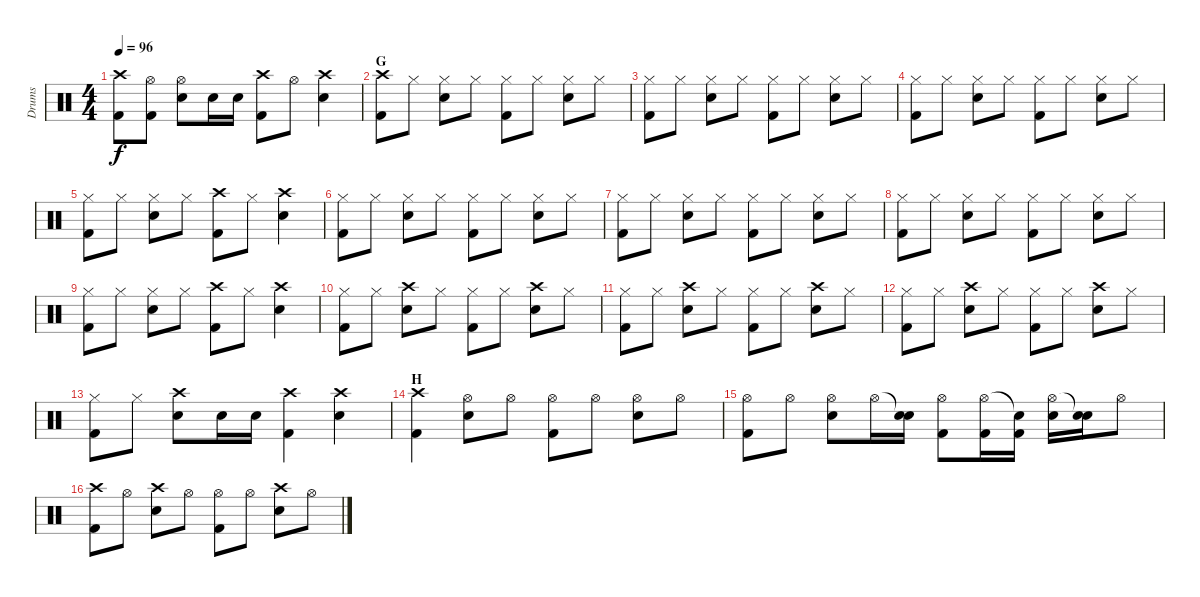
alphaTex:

\track ("Drums" "Drums") {instrument percussion}
\staff {score}
\articulation defaults
\ts (4 4)
\tempo 96
\clef neutral
\ks c
("Crash high (hit)" "Kick (hit) 2").8{dy f} ("Hi-Hat (open)" "Kick (hit) 2").8 ("Hi-Hat (open)" "Snare (hit) 2").8 "Snare (hit) 2".16 "Snare (hit) 2".16 ("Crash high (hit)" "Kick (hit) 2").8 "Hi-Hat (open)".8 ("Crash high (hit)" "Snare (hit) 2").4 |
\section ("" "G")
("Crash high (hit)" "Kick (hit) 2").8 "Hi-Hat (closed)".8 ("Hi-Hat (closed)" "Snare (hit) 2").8 "Hi-Hat (closed)".8 ("Hi-Hat (closed)" "Kick (hit) 2").8 "Hi-Hat (closed)".8 ("Hi-Hat (closed)" "Snare (hit) 2").8 "Hi-Hat (closed)".8 |
("Hi-Hat (closed)" "Kick (hit) 2").8 "Hi-Hat (closed)".8 ("Hi-Hat (closed)" "Snare (hit) 2").8 "Hi-Hat (closed)".8 ("Hi-Hat (closed)" "Kick (hit) 2").8 "Hi-Hat (closed)".8 ("Hi-Hat (closed)" "Snare (hit) 2").8 "Hi-Hat (closed)".8 |
("Hi-Hat (closed)" "Kick (hit) 2").8 "Hi-Hat (closed)".8 ("Hi-Hat (closed)" "Snare (hit) 2").8 "Hi-Hat (closed)".8 ("Hi-Hat (closed)" "Kick (hit) 2").8 "Hi-Hat (closed)".8 ("Hi-Hat (closed)" "Snare (hit) 2").8 "Hi-Hat (closed)".8 |
("Hi-Hat (closed)" "Kick (hit) 2").8 "Hi-Hat (closed)".8 ("Hi-Hat (closed)" "Snare (hit) 2").8 "Hi-Hat (closed)".8 ("Crash high (hit)" "Kick (hit) 2").8 "Hi-Hat (closed)".8 ("Crash high (hit)" "Snare (hit) 2").4 |
("Hi-Hat (closed)" "Kick (hit) 2").8 "Hi-Hat (closed)".8 ("Hi-Hat (closed)" "Snare (hit) 2").8 "Hi-Hat (closed)".8 ("Hi-Hat (closed)" "Kick (hit) 2").8 "Hi-Hat (closed)".8 ("Hi-Hat (closed)" "Snare (hit) 2").8 "Hi-Hat (closed)".8 |
("Hi-Hat (closed)" "Kick (hit) 2").8 "Hi-Hat (closed)".8 ("Hi-Hat (closed)" "Snare (hit) 2").8 "Hi-Hat (closed)".8 ("Hi-Hat (closed)" "Kick (hit) 2").8 "Hi-Hat (closed)".8 ("Hi-Hat (closed)" "Snare (hit) 2").8 "Hi-Hat (closed)".8 |
("Hi-Hat (closed)" "Kick (hit) 2").8 "Hi-Hat (closed)".8 ("Hi-Hat (closed)" "Snare (hit) 2").8 "Hi-Hat (closed)".8 ("Hi-Hat (closed)" "Kick (hit) 2").8 "Hi-Hat (closed)".8 ("Hi-Hat (closed)" "Snare (hit) 2").8 "Hi-Hat (closed)".8 |
("Hi-Hat (closed)" "Kick (hit) 2").8 "Hi-Hat (closed)".8 ("Hi-Hat (closed)" "Snare (hit) 2").8 "Hi-Hat (closed)".8 ("Crash high (hit)" "Kick (hit) 2").8 "Hi-Hat (closed)".8 ("Crash high (hit)" "Snare (hit) 2").4 |
("Hi-Hat (closed)" "Kick (hit) 2").8 "Hi-Hat (closed)".8 ("Crash high (hit)" "Snare (hit) 2").8 "Hi-Hat (closed)".8 ("Hi-Hat (closed)" "Kick (hit) 2").8 "Hi-Hat (closed)".8 ("Crash high (hit)" "Snare (hit) 2").8 "Hi-Hat (closed)".8 |
("Hi-Hat (closed)" "Kick (hit) 2").8 "Hi-Hat (closed)".8 ("Crash high (hit)" "Snare (hit) 2").8 "Hi-Hat (closed)".8 ("Hi-Hat (closed)" "Kick (hit) 2").8 "Hi-Hat (closed)".8 ("Crash high (hit)" "Snare (hit) 2").8 "Hi-Hat (closed)".8 |
("Hi-Hat (closed)" "Kick (hit) 2").8 "Hi-Hat (closed)".8 ("Crash high (hit)" "Snare (hit) 2").8 "Hi-Hat (closed)".8 ("Hi-Hat (closed)" "Kick (hit) 2").8 "Hi-Hat (closed)".8 ("Crash high (hit)" "Snare (hit) 2").8 "Hi-Hat (closed)".8 |
("Hi-Hat (closed)" "Kick (hit) 2").8 "Hi-Hat (closed)".8 ("Crash high (hit)" "Snare (hit) 2").8 "Snare (hit) 2".16 "Snare (hit) 2".16 ("Crash high (hit)" "Kick (hit) 2").4 ("Crash high (hit)" "Snare (hit) 2").4 |
\section ("" "H")
("Crash high (hit)" "Kick (hit) 2").4 ("Hi-Hat (open)" "Snare (hit) 2").8 "Hi-Hat (open)".8 ("Hi-Hat (open)" "Kick (hit) 2").8 "Hi-Hat (open)".8 ("Hi-Hat (open)" "Snare (hit) 2").8 "Hi-Hat (open)".8 |
("Hi-Hat (open)" "Kick (hit) 2").8 "Hi-Hat (open)".8 ("Hi-Hat (open)" "Snare (hit) 2").8 "Hi-Hat (open)".16 ("Snare (hit)"{t} "Snare (hit) 2").16 ("Hi-Hat (open)" "Kick (hit) 2").8 ("Hi-Hat (open)" "Kick (hit) 2").16 ("Snare (hit)"{t} "Kick (hit) 2").16 ("Hi-Hat (open)" "Snare (hit) 2").16 ("Snare (hit)"{t} "Snare (hit) 2").16 "Hi-Hat (open)".8 |
("Crash high (hit)" "Kick (hit) 2").8 "Hi-Hat (open)".8 ("Crash high (hit)" "Snare (hit) 2").8 "Hi-Hat (open)".8 ("Hi-Hat (open)" "Kick (hit) 2").8 "Hi-Hat (open)".8 ("Crash high (hit)" "Snare (hit) 2").8 "Hi-Hat (open)".8
